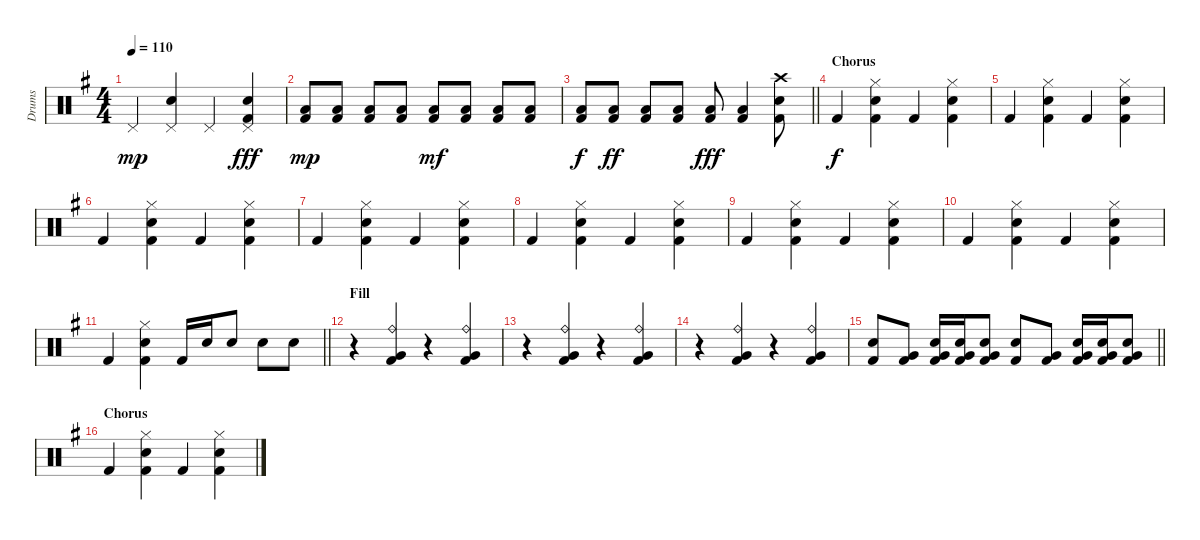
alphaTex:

\track ("Drums" "Drums") {instrument percussion}
\staff {score}
\articulation defaults
\ts (4 4)
\tempo 110
\clef neutral
\ks g "Pedal Hi-Hat (hit)".4{dy mp}
("Pedal Hi-Hat (hit)" "Snare (hit) 2").4 "Pedal Hi-Hat (hit)".4 ("Pedal Hi-Hat (hit)" "Snare (hit) 2" "Kick (hit) 2").4{dy fff} |
("Low Tom (hit)" "Kick (hit) 2").8{dy mp} ("Low Tom (hit)" "Kick (hit) 2").8 ("Low Tom (hit)" "Kick (hit) 2").8 ("Low Tom (hit)" "Kick (hit) 2").8 ("Low Tom (hit)" "Kick (hit) 2").8{dy mf} ("Low Tom (hit)" "Kick (hit) 2").8 ("Low Tom (hit)" "Kick (hit) 2").8 ("Low Tom (hit)" "Kick (hit) 2").8 |
\barLineRight lightlight
("Low Tom (hit)" "Kick (hit) 2").8{dy f} ("Low Tom (hit)" "Kick (hit) 2").8{dy ff} ("Low Tom (hit)" "Kick (hit) 2").8 ("Low Tom (hit)" "Kick (hit) 2").8 ("Low Tom (hit)" "Kick (hit) 2").8{dy fff} ("Low Tom (hit)" "Kick (hit) 2").4 ("Crash high (hit)" "Snare (hit) 2" "Kick (hit) 2").8 |
\section ("" "Chorus")
"Kick (hit) 2".4{dy f} ("Hi-Hat (closed)" "Snare (hit) 2" "Kick (hit) 2").4 "Kick (hit) 2".4 ("Hi-Hat (closed)" "Snare (hit) 2" "Kick (hit) 2").4 |
"Kick (hit) 2".4 ("Hi-Hat (closed)" "Snare (hit) 2" "Kick (hit) 2").4 "Kick (hit) 2".4 ("Hi-Hat (closed)" "Snare (hit) 2" "Kick (hit) 2").4 |
"Kick (hit) 2".4 ("Hi-Hat (closed)" "Snare (hit) 2" "Kick (hit) 2").4 "Kick (hit) 2".4 ("Hi-Hat (closed)" "Snare (hit) 2" "Kick (hit) 2").4 |
"Kick (hit) 2".4 ("Hi-Hat (closed)" "Snare (hit) 2" "Kick (hit) 2").4 "Kick (hit) 2".4 ("Hi-Hat (closed)" "Snare (hit) 2" "Kick (hit) 2").4 |
"Kick (hit) 2".4 ("Hi-Hat (closed)" "Snare (hit) 2" "Kick (hit) 2").4 "Kick (hit) 2".4 ("Hi-Hat (closed)" "Snare (hit) 2" "Kick (hit) 2").4 |
"Kick (hit) 2".4 ("Hi-Hat (closed)" "Snare (hit) 2" "Kick (hit) 2").4 "Kick (hit) 2".4 ("Hi-Hat (closed)" "Snare (hit) 2" "Kick (hit) 2").4 |
"Kick (hit) 2".4 ("Hi-Hat (closed)" "Snare (hit) 2" "Kick (hit) 2").4 "Kick (hit) 2".4 ("Hi-Hat (closed)" "Snare (hit) 2" "Kick (hit) 2").4 |
\barLineRight lightlight "Kick (hit) 2".4
("Hi-Hat (closed)" "Snare (hit) 2" "Kick (hit) 2").4 "Kick (hit) 2".16 "Snare (hit) 2".16 "Snare (hit) 2".8 "Snare (hit) 2".8 "Snare (hit) 2".8 |
\section ("" "Fill")
r.4 ("Ride (bell)" "Very Low Tom (hit)" "Kick (hit) 2").4 r.4 ("Ride (bell)" "Very Low Tom (hit)" "Kick (hit) 2").4 |
r.4 ("Ride (bell)" "Very Low Tom (hit)" "Kick (hit) 2").4 r.4 ("Ride (bell)" "Very Low Tom (hit)" "Kick (hit) 2").4 |
r.4 ("Ride (bell)" "Very Low Tom (hit)" "Kick (hit) 2").4 r.4 ("Ride (bell)" "Very Low Tom (hit)" "Kick (hit) 2").4 |
\barLineRight lightlight
("Snare (hit) 2" "Kick (hit) 2").8 ("Very Low Tom (hit)" "Kick (hit) 2").8 ("Very Low Tom (hit)" "Snare (hit) 2" "Kick (hit) 2").16 ("Very Low Tom (hit)" "Snare (hit) 2" "Kick (hit) 2").16 ("Very Low Tom (hit)" "Snare (hit) 2" "Kick (hit) 2").8 ("Snare (hit) 2" "Kick (hit) 2").8 ("Very Low Tom (hit)" "Kick (hit) 2").8 ("Very Low Tom (hit)" "Snare (hit) 2" "Kick (hit) 2").16 ("Very Low Tom (hit)" "Snare (hit) 2" "Kick (hit) 2").16 ("Very Low Tom (hit)" "Snare (hit) 2" "Kick (hit) 2").8 |
\section ("" "Chorus")
"Kick (hit) 2".4 ("Hi-Hat (closed)" "Snare (hit) 2" "Kick (hit) 2").4 "Kick (hit) 2".4 ("Hi-Hat (closed)" "Snare (hit) 2" "Kick (hit) 2").4
